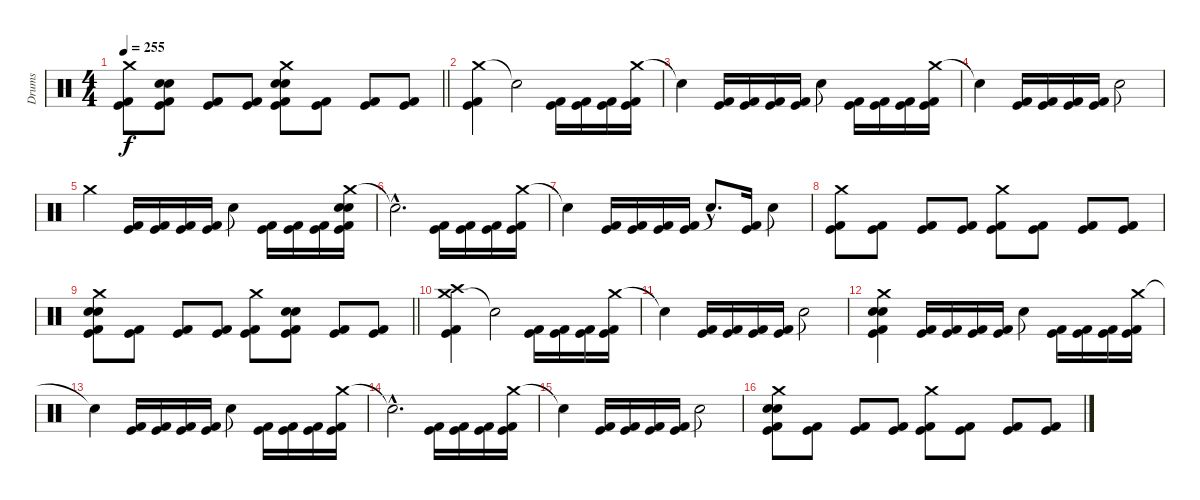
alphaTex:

\track ("Drums" "Drums") {instrument percussion}
\staff {score}
\articulation defaults
\ts (4 4)
\tempo 255
\clef neutral
\barLineRight lightlight
\ks c
("Crash medium (hit)" "Kick (hit) 2" "Kick (hit)").8{dy f} ("Electric Snare (hit)" "Electric Snare (hit)" "Kick (hit) 2" "Kick (hit)").8 ("Kick (hit) 2" "Kick (hit)").8 ("Kick (hit) 2" "Kick (hit)").8 ("Crash medium (hit)" "Electric Snare (hit)" "Electric Snare (hit)" "Kick (hit) 2" "Kick (hit)").8 ("Kick (hit) 2" "Kick (hit)").8 ("Kick (hit) 2" "Kick (hit)").8 ("Kick (hit) 2" "Kick (hit)").8 |
("Crash medium (hit)" "Kick (hit) 2" "Kick (hit)").4 "Snare (hit)"{t}.2 ("Kick (hit) 2" "Kick (hit)").16 ("Kick (hit) 2" "Kick (hit)").16 ("Kick (hit) 2" "Kick (hit)").16 ("Crash medium (hit)" "Kick (hit) 2" "Kick (hit)").16 |
"Snare (hit)"{t}.4 ("Kick (hit) 2" "Kick (hit)").16 ("Kick (hit) 2" "Kick (hit)").16 ("Kick (hit) 2" "Kick (hit)").16 ("Kick (hit) 2" "Kick (hit)").16 "Snare (hit)"{t}.4 ("Kick (hit) 2" "Kick (hit)").16 ("Kick (hit) 2" "Kick (hit)").16 ("Kick (hit) 2" "Kick (hit)").16 ("Crash medium (hit)" "Kick (hit) 2" "Kick (hit)").16 |
"Snare (hit)"{t}.4 ("Kick (hit) 2" "Kick (hit)").16 ("Kick (hit) 2" "Kick (hit)").16 ("Kick (hit) 2" "Kick (hit)").16 ("Kick (hit) 2" "Kick (hit)").16 "Snare (hit)"{t}.2 |
"Crash medium (hit)".4 ("Kick (hit) 2" "Kick (hit)").16 ("Kick (hit) 2" "Kick (hit)").16 ("Kick (hit) 2" "Kick (hit)").16 ("Kick (hit) 2" "Kick (hit)").16 "Snare (hit)"{t}.4 ("Kick (hit) 2" "Kick (hit)").16 ("Kick (hit) 2" "Kick (hit)").16 ("Kick (hit) 2" "Kick (hit)").16 ("Crash medium (hit)" "Electric Snare (hit)" "Electric Snare (hit)" "Kick (hit) 2" "Kick (hit)").16 |
"Snare (hit)"{hac t}.2{d} ("Kick (hit) 2" "Kick (hit)").16 ("Kick (hit) 2" "Kick (hit)").16 ("Kick (hit) 2" "Kick (hit)").16 ("Crash medium (hit)" "Kick (hit) 2" "Kick (hit)").16 |
"Snare (hit)"{t}.4 ("Kick (hit) 2" "Kick (hit)").16 ("Kick (hit) 2" "Kick (hit)").16 ("Kick (hit) 2" "Kick (hit)").16 ("Kick (hit) 2" "Kick (hit)").16 "Snare (hit)"{hac t}.8{d} ("Kick (hit) 2" "Kick (hit)").16 "Snare (hit)"{t}.4 |
("Crash medium (hit)" "Kick (hit) 2" "Kick (hit)").8 ("Kick (hit) 2" "Kick (hit)").8 ("Kick (hit) 2" "Kick (hit)").8 ("Kick (hit) 2" "Kick (hit)").8 ("Crash medium (hit)" "Kick (hit) 2" "Kick (hit)").8 ("Kick (hit) 2" "Kick (hit)").8 ("Kick (hit) 2" "Kick (hit)").8 ("Kick (hit) 2" "Kick (hit)").8 |
\barLineRight lightlight
("Crash medium (hit)" "Electric Snare (hit)" "Electric Snare (hit)" "Kick (hit) 2" "Kick (hit)").8 ("Kick (hit) 2" "Kick (hit)").8 ("Kick (hit) 2" "Kick (hit)").8 ("Kick (hit) 2" "Kick (hit)").8 ("Crash medium (hit)" "Kick (hit) 2" "Kick (hit)").8 ("Electric Snare (hit)" "Electric Snare (hit)" "Kick (hit) 2" "Kick (hit)").8 ("Kick (hit) 2" "Kick (hit)").8 ("Kick (hit) 2" "Kick (hit)").8 |
("Crash medium (hit)" "Crash high (hit)" "Kick (hit) 2" "Kick (hit)").4 "Snare (hit)"{t}.2 ("Kick (hit) 2" "Kick (hit)").16 ("Kick (hit) 2" "Kick (hit)").16 ("Kick (hit) 2" "Kick (hit)").16 ("Crash medium (hit)" "Kick (hit) 2" "Kick (hit)").16 |
"Snare (hit)"{t}.4 ("Kick (hit) 2" "Kick (hit)").16 ("Kick (hit) 2" "Kick (hit)").16 ("Kick (hit) 2" "Kick (hit)").16 ("Kick (hit) 2" "Kick (hit)").16 "Snare (hit)"{t}.2 |
("Crash medium (hit)" "Electric Snare (hit)" "Electric Snare (hit)" "Kick (hit) 2" "Kick (hit)").4 ("Kick (hit) 2" "Kick (hit)").16 ("Kick (hit) 2" "Kick (hit)").16 ("Kick (hit) 2" "Kick (hit)").16 ("Kick (hit) 2" "Kick (hit)").16 "Snare (hit)"{t}.4 ("Kick (hit) 2" "Kick (hit)").16 ("Kick (hit) 2" "Kick (hit)").16 ("Kick (hit) 2" "Kick (hit)").16 ("Crash medium (hit)" "Kick (hit) 2" "Kick (hit)").16 |
"Snare (hit)"{t}.4 ("Kick (hit) 2" "Kick (hit)").16 ("Kick (hit) 2" "Kick (hit)").16 ("Kick (hit) 2" "Kick (hit)").16 ("Kick (hit) 2" "Kick (hit)").16 "Snare (hit)"{t}.4 ("Kick (hit) 2" "Kick (hit)").16 ("Kick (hit) 2" "Kick (hit)").16 ("Kick (hit) 2" "Kick (hit)").16 ("Crash medium (hit)" "Kick (hit) 2" "Kick (hit)").16 |
"Snare (hit)"{hac t}.2{d} ("Kick (hit) 2" "Kick (hit)").16 ("Kick (hit) 2" "Kick (hit)").16 ("Kick (hit) 2" "Kick (hit)").16 ("Crash medium (hit)" "Kick (hit) 2" "Kick (hit)").16 |
"Snare (hit)"{t}.4 ("Kick (hit) 2" "Kick (hit)").16 ("Kick (hit) 2" "Kick (hit)").16 ("Kick (hit) 2" "Kick (hit)").16 ("Kick (hit) 2" "Kick (hit)").16 "Snare (hit)"{t}.2 |
("Crash medium (hit)" "Electric Snare (hit)" "Electric Snare (hit)" "Kick (hit) 2" "Kick (hit)").8 ("Kick (hit) 2" "Kick (hit)").8 ("Kick (hit) 2" "Kick (hit)").8 ("Kick (hit) 2" "Kick (hit)").8 ("Crash medium (hit)" "Kick (hit) 2" "Kick (hit)").8 ("Kick (hit) 2" "Kick (hit)").8 ("Kick (hit) 2" "Kick (hit)").8 ("Kick (hit) 2" "Kick (hit)").8
